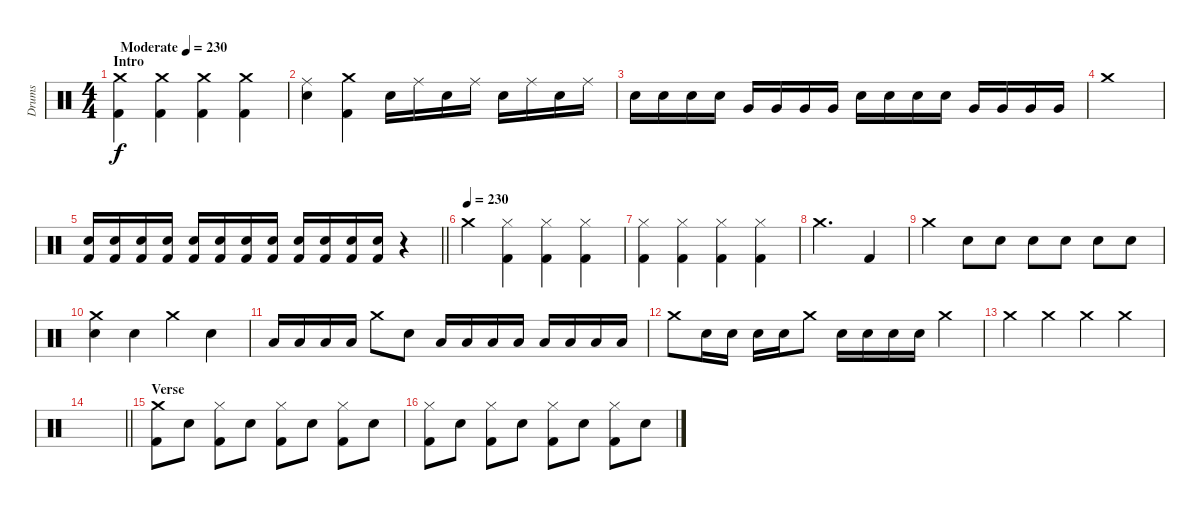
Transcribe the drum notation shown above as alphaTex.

\track ("Drums" "Drums") {instrument percussion}
\staff {score}
\articulation defaults
\ts (4 4)
\section ("" "Intro")
\tempo (230 "Moderate")
\clef neutral
\ks c
("Kick (hit) 2" "Crash medium (hit)").4{dy f} ("Kick (hit) 2" "Crash medium (hit)").4 ("Kick (hit) 2" "Crash medium (hit)").4 ("Kick (hit) 2" "Crash medium (hit)").4 |
("Ride (middle)" "Snare (hit) 2").4 ("Crash medium (hit)" "Kick (hit) 2").4 "Snare (hit) 2".16 "Ride (middle)".16 "Snare (hit) 2".16 "Ride (middle)".16 "Snare (hit) 2".16 "Ride (middle)".16 "Snare (hit) 2".16 "Ride (middle)".16 |
"Snare (hit) 2".16 "Snare (hit) 2".16 "Snare (hit) 2".16 "Snare (hit) 2".16 "Very Low Tom (hit)".16 "Very Low Tom (hit)".16 "Very Low Tom (hit)".16 "Very Low Tom (hit)".16 "Snare (hit) 2".16 "Snare (hit) 2".16 "Snare (hit) 2".16 "Snare (hit) 2".16 "Very Low Tom (hit)".16 "Very Low Tom (hit)".16 "Very Low Tom (hit)".16 "Very Low Tom (hit)".16 |
"Crash medium (hit)".1 |
\barLineRight lightlight
("Snare (hit) 2" "Kick (hit) 2").16 ("Snare (hit) 2" "Kick (hit) 2").16 ("Snare (hit) 2" "Kick (hit) 2").16 ("Snare (hit) 2" "Kick (hit) 2").16 ("Snare (hit) 2" "Kick (hit) 2").16 ("Snare (hit) 2" "Kick (hit) 2").16 ("Snare (hit) 2" "Kick (hit) 2").16 ("Snare (hit) 2" "Kick (hit) 2").16 ("Snare (hit) 2" "Kick (hit) 2").16 ("Snare (hit) 2" "Kick (hit) 2").16 ("Snare (hit) 2" "Kick (hit) 2").16 ("Snare (hit) 2" "Kick (hit) 2").16 r.4 |
\section ("" "")
\tempo (230)
"Crash medium (hit)".4 ("Hi-Hat (closed)" "Kick (hit) 2").4 ("Hi-Hat (closed)" "Kick (hit) 2").4 ("Hi-Hat (closed)" "Kick (hit) 2").4 |
("Hi-Hat (closed)" "Kick (hit) 2").4 ("Hi-Hat (closed)" "Kick (hit) 2").4 ("Hi-Hat (closed)" "Kick (hit) 2").4 ("Hi-Hat (closed)" "Kick (hit) 2").4 |
"Crash medium (hit)".2{d} "Kick (hit) 2".4 |
"Crash medium (hit)".4 "Snare (hit) 2".8 "Snare (hit) 2".8 "Snare (hit) 2".8 "Snare (hit) 2".8 "Snare (hit) 2".8 "Snare (hit) 2".8 |
("Crash medium (hit)" "Snare (hit) 2").4 "Snare (hit) 2".4 "Crash medium (hit)".4 "Snare (hit) 2".4 |
"Low Tom (hit)".16 "Low Tom (hit)".16 "Low Tom (hit)".16 "Low Tom (hit)".16 "Crash medium (hit)".8 "Snare (hit) 2".8 "Low Tom (hit)".16 "Low Tom (hit)".16 "Low Tom (hit)".16 "Low Tom (hit)".16 "Low Tom (hit)".16 "Low Tom (hit)".16 "Low Tom (hit)".16 "Low Tom (hit)".16 |
"Crash medium (hit)".8 "Snare (hit) 2".16 "Snare (hit) 2".16 "Snare (hit) 2".16 "Snare (hit) 2".16 "Crash medium (hit)".8 "Snare (hit) 2".16 "Snare (hit) 2".16 "Snare (hit) 2".16 "Snare (hit) 2".16 "Crash medium (hit)".4 |
"Crash medium (hit)".4 "Crash medium (hit)".4 "Crash medium (hit)".4 "Crash medium (hit)".4 |
\barLineRight lightlight
|
\section ("" "Verse")
("Crash medium (hit)" "Kick (hit) 2").8 "Snare (hit) 2".8 ("Hi-Hat (closed)" "Kick (hit) 2").8 "Snare (hit) 2".8 ("Hi-Hat (closed)" "Kick (hit) 2").8 "Snare (hit) 2".8 ("Hi-Hat (closed)" "Kick (hit) 2").8 "Snare (hit) 2".8 |
("Hi-Hat (closed)" "Kick (hit) 2").8 "Snare (hit) 2".8 ("Hi-Hat (closed)" "Kick (hit) 2").8 "Snare (hit) 2".8 ("Hi-Hat (closed)" "Kick (hit) 2").8 "Snare (hit) 2".8 ("Hi-Hat (closed)" "Kick (hit) 2").8 "Snare (hit) 2".8
